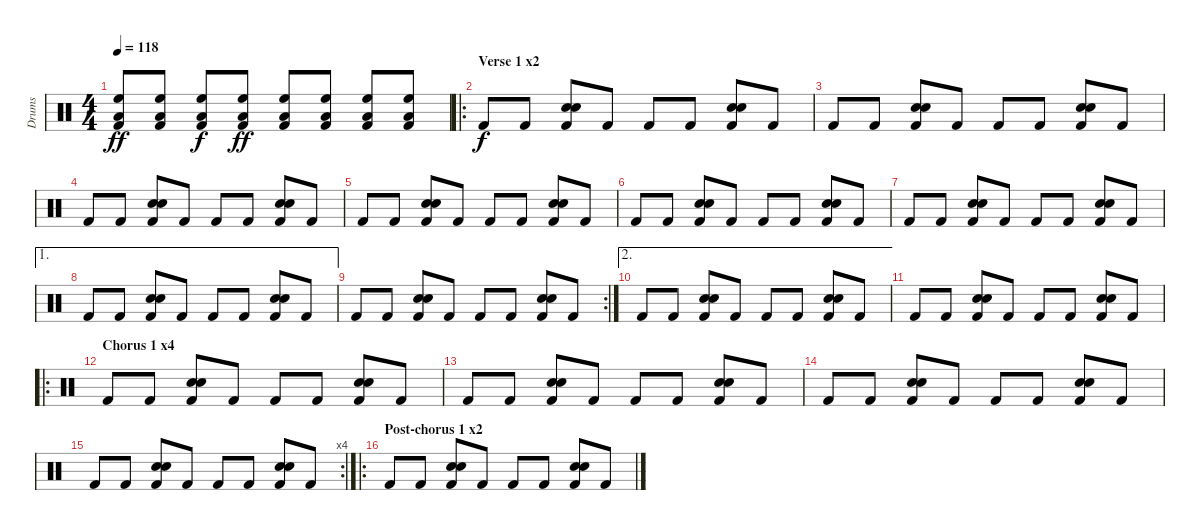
\track ("Drums" "Drums") {instrument percussion}
\staff {score}
\articulation defaults
\ts (4 4)
\tempo 118
\clef neutral
\ks c
("Low Tom (hit)" "High Floor Tom (hit)" "Kick (hit) 2").8{dy ff} ("Low Tom (hit)" "High Floor Tom (hit)" "Kick (hit) 2").8 ("Low Tom (hit)" "High Floor Tom (hit)" "Kick (hit) 2").8{dy f} ("Low Tom (hit)" "High Floor Tom (hit)" "Kick (hit) 2").8{dy ff} ("Low Tom (hit)" "High Floor Tom (hit)" "Kick (hit) 2").8 ("Low Tom (hit)" "High Floor Tom (hit)" "Kick (hit) 2").8 ("Low Tom (hit)" "High Floor Tom (hit)" "Kick (hit) 2").8 ("Low Tom (hit)" "High Floor Tom (hit)" "Kick (hit) 2").8 |
\ro
\section ("" "Verse 1 x2")
"Kick (hit) 2".8{dy f} "Kick (hit) 2".8 ("Snare (hit) 2" "Electric Snare (hit)" "Kick (hit) 2").8 "Kick (hit) 2".8 "Kick (hit) 2".8 "Kick (hit) 2".8 ("Snare (hit) 2" "Electric Snare (hit)" "Kick (hit) 2").8 "Kick (hit) 2".8 |
"Kick (hit) 2".8 "Kick (hit) 2".8 ("Snare (hit) 2" "Electric Snare (hit)" "Kick (hit) 2").8 "Kick (hit) 2".8 "Kick (hit) 2".8 "Kick (hit) 2".8 ("Snare (hit) 2" "Electric Snare (hit)" "Kick (hit) 2").8 "Kick (hit) 2".8 |
"Kick (hit) 2".8 "Kick (hit) 2".8 ("Snare (hit) 2" "Electric Snare (hit)" "Kick (hit) 2").8 "Kick (hit) 2".8 "Kick (hit) 2".8 "Kick (hit) 2".8 ("Snare (hit) 2" "Electric Snare (hit)" "Kick (hit) 2").8 "Kick (hit) 2".8 |
"Kick (hit) 2".8 "Kick (hit) 2".8 ("Snare (hit) 2" "Electric Snare (hit)" "Kick (hit) 2").8 "Kick (hit) 2".8 "Kick (hit) 2".8 "Kick (hit) 2".8 ("Snare (hit) 2" "Electric Snare (hit)" "Kick (hit) 2").8 "Kick (hit) 2".8 |
"Kick (hit) 2".8 "Kick (hit) 2".8 ("Snare (hit) 2" "Electric Snare (hit)" "Kick (hit) 2").8 "Kick (hit) 2".8 "Kick (hit) 2".8 "Kick (hit) 2".8 ("Snare (hit) 2" "Electric Snare (hit)" "Kick (hit) 2").8 "Kick (hit) 2".8 |
"Kick (hit) 2".8 "Kick (hit) 2".8 ("Snare (hit) 2" "Electric Snare (hit)" "Kick (hit) 2").8 "Kick (hit) 2".8 "Kick (hit) 2".8 "Kick (hit) 2".8 ("Snare (hit) 2" "Electric Snare (hit)" "Kick (hit) 2").8 "Kick (hit) 2".8 |
\ae 1 "Kick (hit) 2".8 "Kick (hit) 2".8
("Snare (hit) 2" "Electric Snare (hit)" "Kick (hit) 2").8 "Kick (hit) 2".8 "Kick (hit) 2".8 "Kick (hit) 2".8 ("Snare (hit) 2" "Electric Snare (hit)" "Kick (hit) 2").8 "Kick (hit) 2".8 |
\rc 2 "Kick (hit) 2".8 "Kick (hit) 2".8
("Snare (hit) 2" "Electric Snare (hit)" "Kick (hit) 2").8 "Kick (hit) 2".8 "Kick (hit) 2".8 "Kick (hit) 2".8 ("Snare (hit) 2" "Electric Snare (hit)" "Kick (hit) 2").8 "Kick (hit) 2".8 |
\ae 2 "Kick (hit) 2".8 "Kick (hit) 2".8
("Snare (hit) 2" "Electric Snare (hit)" "Kick (hit) 2").8 "Kick (hit) 2".8 "Kick (hit) 2".8 "Kick (hit) 2".8 ("Snare (hit) 2" "Electric Snare (hit)" "Kick (hit) 2").8 "Kick (hit) 2".8 |
"Kick (hit) 2".8 "Kick (hit) 2".8 ("Snare (hit) 2" "Electric Snare (hit)" "Kick (hit) 2").8 "Kick (hit) 2".8 "Kick (hit) 2".8 "Kick (hit) 2".8 ("Snare (hit) 2" "Electric Snare (hit)" "Kick (hit) 2").8 "Kick (hit) 2".8 |
\ro
\section ("" "Chorus 1 x4")
"Kick (hit) 2".8 "Kick (hit) 2".8 ("Snare (hit) 2" "Electric Snare (hit)" "Kick (hit) 2").8 "Kick (hit) 2".8 "Kick (hit) 2".8 "Kick (hit) 2".8 ("Snare (hit) 2" "Electric Snare (hit)" "Kick (hit) 2").8 "Kick (hit) 2".8 |
"Kick (hit) 2".8 "Kick (hit) 2".8 ("Snare (hit) 2" "Electric Snare (hit)" "Kick (hit) 2").8 "Kick (hit) 2".8 "Kick (hit) 2".8 "Kick (hit) 2".8 ("Snare (hit) 2" "Electric Snare (hit)" "Kick (hit) 2").8 "Kick (hit) 2".8 |
"Kick (hit) 2".8 "Kick (hit) 2".8 ("Snare (hit) 2" "Electric Snare (hit)" "Kick (hit) 2").8 "Kick (hit) 2".8 "Kick (hit) 2".8 "Kick (hit) 2".8 ("Snare (hit) 2" "Electric Snare (hit)" "Kick (hit) 2").8 "Kick (hit) 2".8 |
\rc 4 "Kick (hit) 2".8 "Kick (hit) 2".8
("Snare (hit) 2" "Electric Snare (hit)" "Kick (hit) 2").8 "Kick (hit) 2".8 "Kick (hit) 2".8 "Kick (hit) 2".8 ("Snare (hit) 2" "Electric Snare (hit)" "Kick (hit) 2").8 "Kick (hit) 2".8 |
\ro
\section ("" "Post-chorus 1 x2")
"Kick (hit) 2".8 "Kick (hit) 2".8 ("Snare (hit) 2" "Electric Snare (hit)" "Kick (hit) 2").8 "Kick (hit) 2".8 "Kick (hit) 2".8 "Kick (hit) 2".8 ("Snare (hit) 2" "Electric Snare (hit)" "Kick (hit) 2").8 "Kick (hit) 2".8
